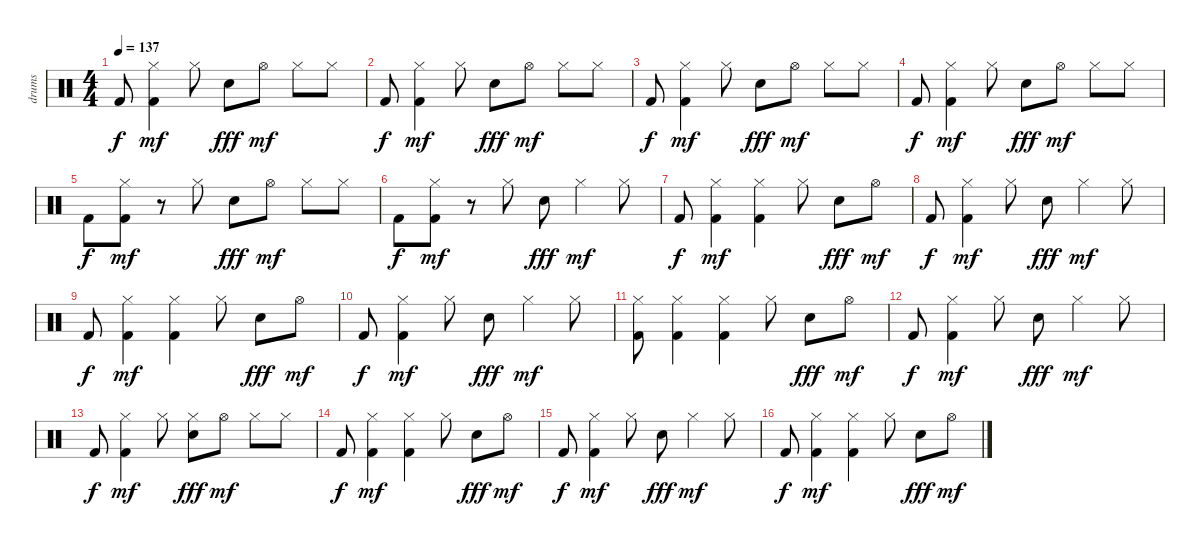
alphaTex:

\track ("drums" "drums") {instrument percussion}
\staff {score}
\articulation defaults
\ts (4 4)
\tempo 137
\clef neutral
\ks c "Kick (hit) 2".8{dy f}
("Hi-Hat (closed)" "Kick (hit) 2").4{dy mf} "Hi-Hat (closed)".8 "Electric Snare (hit)".8{dy fff} "Hi-Hat (open)".8{dy mf} "Hi-Hat (closed)".8 "Hi-Hat (closed)".8 |
"Kick (hit) 2".8{dy f} ("Hi-Hat (closed)" "Kick (hit) 2").4{dy mf} "Hi-Hat (closed)".8 "Electric Snare (hit)".8{dy fff} "Hi-Hat (open)".8{dy mf} "Hi-Hat (closed)".8 "Hi-Hat (closed)".8 |
"Kick (hit) 2".8{dy f} ("Hi-Hat (closed)" "Kick (hit) 2").4{dy mf} "Hi-Hat (closed)".8 "Electric Snare (hit)".8{dy fff} "Hi-Hat (open)".8{dy mf} "Hi-Hat (closed)".8 "Hi-Hat (closed)".8 |
"Kick (hit) 2".8{dy f} ("Hi-Hat (closed)" "Kick (hit) 2").4{dy mf} "Hi-Hat (closed)".8 "Electric Snare (hit)".8{dy fff} "Hi-Hat (open)".8{dy mf} "Hi-Hat (closed)".8 "Hi-Hat (closed)".8 |
"Kick (hit) 2".8{dy f} ("Hi-Hat (closed)" "Kick (hit) 2").8{dy mf} r.8 "Hi-Hat (closed)".8 "Electric Snare (hit)".8{dy fff} "Hi-Hat (open)".8{dy mf} "Hi-Hat (closed)".8 "Hi-Hat (closed)".8 |
"Kick (hit) 2".8{dy f} ("Hi-Hat (closed)" "Kick (hit) 2").8{dy mf} r.8 "Hi-Hat (closed)".8 "Electric Snare (hit)".8{dy fff} "Hi-Hat (closed)".4{dy mf} "Hi-Hat (closed)".8 |
"Kick (hit) 2".8{dy f} ("Hi-Hat (closed)" "Kick (hit) 2").4{dy mf} ("Hi-Hat (closed)" "Kick (hit) 2").4 "Hi-Hat (closed)".8 "Electric Snare (hit)".8{dy fff} "Hi-Hat (open)".8{dy mf} |
"Kick (hit) 2".8{dy f} ("Hi-Hat (closed)" "Kick (hit) 2").4{dy mf} "Hi-Hat (closed)".8 "Electric Snare (hit)".8{dy fff} "Hi-Hat (closed)".4{dy mf} "Hi-Hat (closed)".8 |
"Kick (hit) 2".8{dy f} ("Hi-Hat (closed)" "Kick (hit) 2").4{dy mf} ("Hi-Hat (closed)" "Kick (hit) 2").4 "Hi-Hat (closed)".8 "Electric Snare (hit)".8{dy fff} "Hi-Hat (open)".8{dy mf} |
"Kick (hit) 2".8{dy f} ("Hi-Hat (closed)" "Kick (hit) 2").4{dy mf} "Hi-Hat (closed)".8 "Electric Snare (hit)".8{dy fff} "Hi-Hat (closed)".4{dy mf} "Hi-Hat (closed)".8 |
("Hi-Hat (closed)" "Kick (hit) 2").8 ("Hi-Hat (closed)" "Kick (hit) 2").4 ("Hi-Hat (closed)" "Kick (hit) 2").4 "Hi-Hat (closed)".8 "Electric Snare (hit)".8{dy fff} "Hi-Hat (open)".8{dy mf} |
"Kick (hit) 2".8{dy f} ("Hi-Hat (closed)" "Kick (hit) 2").4{dy mf} "Hi-Hat (closed)".8 "Electric Snare (hit)".8{dy fff} "Hi-Hat (closed)".4{dy mf} "Hi-Hat (closed)".8 |
"Kick (hit) 2".8{dy f} ("Hi-Hat (closed)" "Kick (hit) 2").4{dy mf} "Hi-Hat (closed)".8 ("Hi-Hat (closed)" "Electric Snare (hit)").8{dy fff} "Hi-Hat (open)".8{dy mf} "Hi-Hat (closed)".8 "Hi-Hat (closed)".8 |
"Kick (hit) 2".8{dy f} ("Hi-Hat (closed)" "Kick (hit) 2").4{dy mf} ("Hi-Hat (closed)" "Kick (hit) 2").4 "Hi-Hat (closed)".8 "Electric Snare (hit)".8{dy fff} "Hi-Hat (open)".8{dy mf} |
"Kick (hit) 2".8{dy f} ("Hi-Hat (closed)" "Kick (hit) 2").4{dy mf} "Hi-Hat (closed)".8 "Electric Snare (hit)".8{dy fff} "Hi-Hat (closed)".4{dy mf} "Hi-Hat (closed)".8 |
"Kick (hit) 2".8{dy f} ("Hi-Hat (closed)" "Kick (hit) 2").4{dy mf} ("Hi-Hat (closed)" "Kick (hit) 2").4 "Hi-Hat (closed)".8 "Electric Snare (hit)".8{dy fff} "Hi-Hat (open)".8{dy mf}
